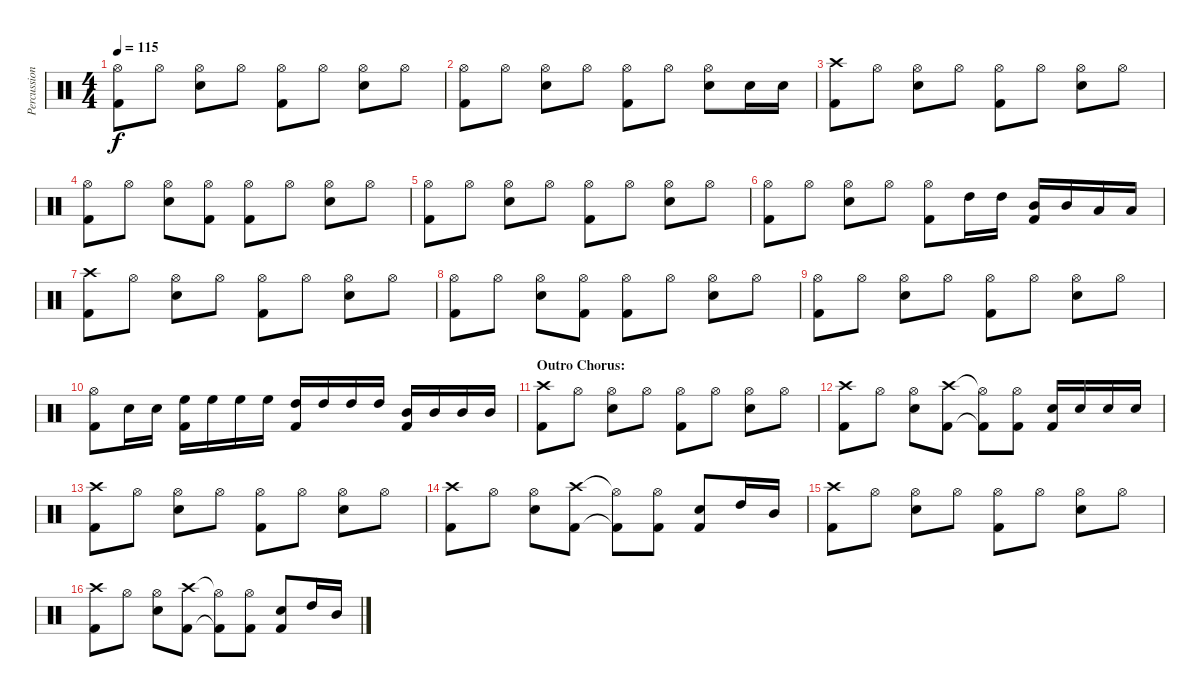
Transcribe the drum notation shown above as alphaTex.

\track ("Percussion" "Percussion") {instrument percussion}
\staff {score}
\articulation defaults
\ts (4 4)
\tempo 115
\clef neutral
\ks c
("Hi-Hat (open)" "Kick (hit) 2").8{dy f} "Hi-Hat (open)".8 ("Hi-Hat (open)" "Snare (hit) 2").8 "Hi-Hat (open)".8 ("Hi-Hat (open)" "Kick (hit) 2").8 "Hi-Hat (open)".8 ("Hi-Hat (open)" "Snare (hit) 2").8 "Hi-Hat (open)".8 |
("Hi-Hat (open)" "Kick (hit) 2").8 "Hi-Hat (open)".8 ("Hi-Hat (open)" "Snare (hit) 2").8 "Hi-Hat (open)".8 ("Hi-Hat (open)" "Kick (hit) 2").8 "Hi-Hat (open)".8 ("Hi-Hat (open)" "Snare (hit) 2").8 "Snare (hit) 2".16 "Snare (hit) 2".16 |
("Crash high (hit)" "Kick (hit) 2").8 "Hi-Hat (open)".8 ("Hi-Hat (open)" "Snare (hit) 2").8 "Hi-Hat (open)".8 ("Hi-Hat (open)" "Kick (hit) 2").8 "Hi-Hat (open)".8 ("Hi-Hat (open)" "Snare (hit) 2").8 "Hi-Hat (open)".8 |
("Hi-Hat (open)" "Kick (hit) 2").8 "Hi-Hat (open)".8 ("Hi-Hat (open)" "Snare (hit) 2").8 ("Hi-Hat (open)" "Kick (hit) 2").8 ("Hi-Hat (open)" "Kick (hit) 2").8 "Hi-Hat (open)".8 ("Hi-Hat (open)" "Snare (hit) 2").8 "Hi-Hat (open)".8 |
("Hi-Hat (open)" "Kick (hit) 2").8 "Hi-Hat (open)".8 ("Hi-Hat (open)" "Snare (hit) 2").8 "Hi-Hat (open)".8 ("Hi-Hat (open)" "Kick (hit) 2").8 "Hi-Hat (open)".8 ("Hi-Hat (open)" "Snare (hit) 2").8 "Hi-Hat (open)".8 |
("Hi-Hat (open)" "Kick (hit) 2").8 "Hi-Hat (open)".8 ("Hi-Hat (open)" "Snare (hit) 2").8 "Hi-Hat (open)".8 ("Hi-Hat (open)" "Kick (hit) 2").8 "High Tom (hit)".16 "High Tom (hit)".16 ("Mid Tom (hit)" "Kick (hit) 2").16 "Mid Tom (hit)".16 "Low Tom (hit)".16 "Low Tom (hit)".16 |
("Crash high (hit)" "Kick (hit) 2").8 "Hi-Hat (open)".8 ("Hi-Hat (open)" "Snare (hit) 2").8 "Hi-Hat (open)".8 ("Hi-Hat (open)" "Kick (hit) 2").8 "Hi-Hat (open)".8 ("Hi-Hat (open)" "Snare (hit) 2").8 "Hi-Hat (open)".8 |
("Hi-Hat (open)" "Kick (hit) 2").8 "Hi-Hat (open)".8 ("Hi-Hat (open)" "Snare (hit) 2").8 ("Hi-Hat (open)" "Kick (hit) 2").8 ("Hi-Hat (open)" "Kick (hit) 2").8 "Hi-Hat (open)".8 ("Hi-Hat (open)" "Snare (hit) 2").8 "Hi-Hat (open)".8 |
("Hi-Hat (open)" "Kick (hit) 2").8 "Hi-Hat (open)".8 ("Hi-Hat (open)" "Snare (hit) 2").8 "Hi-Hat (open)".8 ("Hi-Hat (open)" "Kick (hit) 2").8 "Hi-Hat (open)".8 ("Hi-Hat (open)" "Snare (hit) 2").8 "Hi-Hat (open)".8 |
("Hi-Hat (open)" "Kick (hit) 2").8 "Snare (hit) 2".16 "Snare (hit) 2".16 ("High Floor Tom (hit)" "Kick (hit) 2").16 "High Floor Tom (hit)".16 "High Floor Tom (hit)".16 "High Floor Tom (hit)".16 ("High Tom (hit)" "Kick (hit) 2").16 "High Tom (hit)".16 "High Tom (hit)".16 "High Tom (hit)".16 ("Mid Tom (hit)" "Kick (hit) 2").16 "Mid Tom (hit)".16 "Mid Tom (hit)".16 "Mid Tom (hit)".16 |
\section ("" "Outro Chorus:")
("Crash high (hit)" "Kick (hit) 2").8 "Hi-Hat (open)".8 ("Hi-Hat (open)" "Snare (hit) 2").8 "Hi-Hat (open)".8 ("Hi-Hat (open)" "Kick (hit) 2").8 "Hi-Hat (open)".8 ("Hi-Hat (open)" "Snare (hit) 2").8 "Hi-Hat (open)".8 |
("Crash high (hit)" "Kick (hit) 2").8 "Hi-Hat (open)".8 ("Hi-Hat (open)" "Snare (hit) 2").8 ("Crash high (hit)" "Kick (hit) 2").8 ("Hi-Hat (open)"{t} "Kick (hit) 2"{t}).8 ("Hi-Hat (open)" "Kick (hit) 2").8 ("Snare (hit) 2" "Kick (hit) 2").16 "Snare (hit) 2".16 "Snare (hit) 2".16 "Snare (hit) 2".16 |
("Crash high (hit)" "Kick (hit) 2").8 "Hi-Hat (open)".8 ("Hi-Hat (open)" "Snare (hit) 2").8 "Hi-Hat (open)".8 ("Hi-Hat (open)" "Kick (hit) 2").8 "Hi-Hat (open)".8 ("Hi-Hat (open)" "Snare (hit) 2").8 "Hi-Hat (open)".8 |
("Crash high (hit)" "Kick (hit) 2").8 "Hi-Hat (open)".8 ("Hi-Hat (open)" "Snare (hit) 2").8 ("Crash high (hit)" "Kick (hit) 2").8 ("Hi-Hat (open)"{t} "Kick (hit) 2"{t}).8 ("Hi-Hat (open)" "Kick (hit) 2").8 ("Snare (hit) 2" "Kick (hit) 2").8 "High Tom (hit)".16 "Mid Tom (hit)".16 |
("Crash high (hit)" "Kick (hit) 2").8 "Hi-Hat (open)".8 ("Hi-Hat (open)" "Snare (hit) 2").8 "Hi-Hat (open)".8 ("Hi-Hat (open)" "Kick (hit) 2").8 "Hi-Hat (open)".8 ("Hi-Hat (open)" "Snare (hit) 2").8 "Hi-Hat (open)".8 |
("Crash high (hit)" "Kick (hit) 2").8 "Hi-Hat (open)".8 ("Hi-Hat (open)" "Snare (hit) 2").8 ("Crash high (hit)" "Kick (hit) 2").8 ("Hi-Hat (open)"{t} "Kick (hit) 2"{t}).8 ("Hi-Hat (open)" "Kick (hit) 2").8 ("Snare (hit) 2" "Kick (hit) 2").8 "High Tom (hit)".16 "Mid Tom (hit)".16
